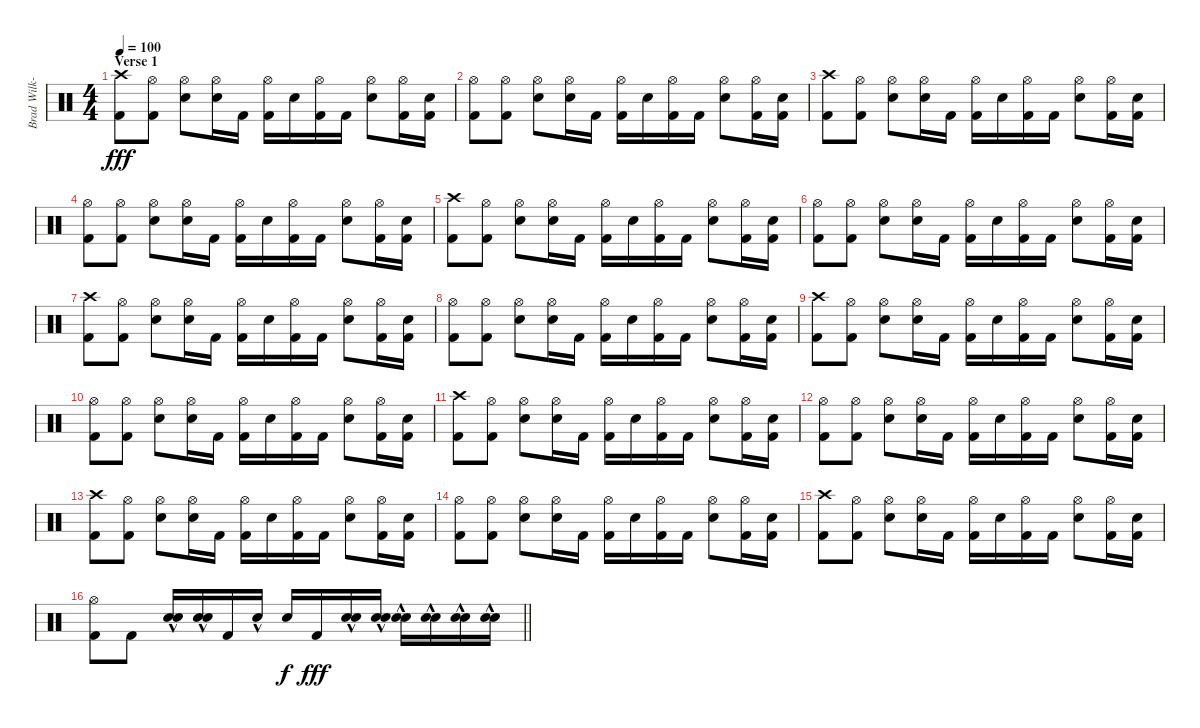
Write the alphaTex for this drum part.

\track ("Brad Wilk-Drums" "Brad Wilk-") {instrument percussion}
\staff {score}
\articulation defaults
\ts (4 4)
\section ("" "Verse 1")
\tempo 100
\clef neutral
\ks c
("Crash high (hit)" "Kick (hit) 2").8{dy fff} ("Hi-Hat (open)" "Kick (hit) 2").8 ("Hi-Hat (open)" "Electric Snare (hit)").8 ("Hi-Hat (open)" "Electric Snare (hit)").16 "Kick (hit) 2".16 ("Hi-Hat (open)" "Kick (hit) 2").16 "Electric Snare (hit)".16 ("Hi-Hat (open)" "Kick (hit) 2").16 "Kick (hit) 2".16 ("Hi-Hat (open)" "Electric Snare (hit)").8 ("Hi-Hat (open)" "Kick (hit) 2").16 ("Electric Snare (hit)" "Kick (hit) 2").16 |
("Hi-Hat (open)" "Kick (hit) 2").8 ("Hi-Hat (open)" "Kick (hit) 2").8 ("Hi-Hat (open)" "Electric Snare (hit)").8 ("Hi-Hat (open)" "Electric Snare (hit)").16 "Kick (hit) 2".16 ("Hi-Hat (open)" "Kick (hit) 2").16 "Electric Snare (hit)".16 ("Hi-Hat (open)" "Kick (hit) 2").16 "Kick (hit) 2".16 ("Hi-Hat (open)" "Electric Snare (hit)").8 ("Hi-Hat (open)" "Kick (hit) 2").16 ("Electric Snare (hit)" "Kick (hit) 2").16 |
("Crash high (hit)" "Kick (hit) 2").8 ("Hi-Hat (open)" "Kick (hit) 2").8 ("Hi-Hat (open)" "Electric Snare (hit)").8 ("Hi-Hat (open)" "Electric Snare (hit)").16 "Kick (hit) 2".16 ("Hi-Hat (open)" "Kick (hit) 2").16 "Electric Snare (hit)".16 ("Hi-Hat (open)" "Kick (hit) 2").16 "Kick (hit) 2".16 ("Hi-Hat (open)" "Electric Snare (hit)").8 ("Hi-Hat (open)" "Kick (hit) 2").16 ("Electric Snare (hit)" "Kick (hit) 2").16 |
("Hi-Hat (open)" "Kick (hit) 2").8 ("Hi-Hat (open)" "Kick (hit) 2").8 ("Hi-Hat (open)" "Electric Snare (hit)").8 ("Hi-Hat (open)" "Electric Snare (hit)").16 "Kick (hit) 2".16 ("Hi-Hat (open)" "Kick (hit) 2").16 "Electric Snare (hit)".16 ("Hi-Hat (open)" "Kick (hit) 2").16 "Kick (hit) 2".16 ("Hi-Hat (open)" "Electric Snare (hit)").8 ("Hi-Hat (open)" "Kick (hit) 2").16 ("Electric Snare (hit)" "Kick (hit) 2").16 |
("Crash high (hit)" "Kick (hit) 2").8 ("Hi-Hat (open)" "Kick (hit) 2").8 ("Hi-Hat (open)" "Electric Snare (hit)").8 ("Hi-Hat (open)" "Electric Snare (hit)").16 "Kick (hit) 2".16 ("Hi-Hat (open)" "Kick (hit) 2").16 "Electric Snare (hit)".16 ("Hi-Hat (open)" "Kick (hit) 2").16 "Kick (hit) 2".16 ("Hi-Hat (open)" "Electric Snare (hit)").8 ("Hi-Hat (open)" "Kick (hit) 2").16 ("Electric Snare (hit)" "Kick (hit) 2").16 |
("Hi-Hat (open)" "Kick (hit) 2").8 ("Hi-Hat (open)" "Kick (hit) 2").8 ("Hi-Hat (open)" "Electric Snare (hit)").8 ("Hi-Hat (open)" "Electric Snare (hit)").16 "Kick (hit) 2".16 ("Hi-Hat (open)" "Kick (hit) 2").16 "Electric Snare (hit)".16 ("Hi-Hat (open)" "Kick (hit) 2").16 "Kick (hit) 2".16 ("Hi-Hat (open)" "Electric Snare (hit)").8 ("Hi-Hat (open)" "Kick (hit) 2").16 ("Electric Snare (hit)" "Kick (hit) 2").16 |
("Crash high (hit)" "Kick (hit) 2").8 ("Hi-Hat (open)" "Kick (hit) 2").8 ("Hi-Hat (open)" "Electric Snare (hit)").8 ("Hi-Hat (open)" "Electric Snare (hit)").16 "Kick (hit) 2".16 ("Hi-Hat (open)" "Kick (hit) 2").16 "Electric Snare (hit)".16 ("Hi-Hat (open)" "Kick (hit) 2").16 "Kick (hit) 2".16 ("Hi-Hat (open)" "Electric Snare (hit)").8 ("Hi-Hat (open)" "Kick (hit) 2").16 ("Electric Snare (hit)" "Kick (hit) 2").16 |
("Hi-Hat (open)" "Kick (hit) 2").8 ("Hi-Hat (open)" "Kick (hit) 2").8 ("Hi-Hat (open)" "Electric Snare (hit)").8 ("Hi-Hat (open)" "Electric Snare (hit)").16 "Kick (hit) 2".16 ("Hi-Hat (open)" "Kick (hit) 2").16 "Electric Snare (hit)".16 ("Hi-Hat (open)" "Kick (hit) 2").16 "Kick (hit) 2".16 ("Hi-Hat (open)" "Electric Snare (hit)").8 ("Hi-Hat (open)" "Kick (hit) 2").16 ("Electric Snare (hit)" "Kick (hit) 2").16 |
("Crash high (hit)" "Kick (hit) 2").8 ("Hi-Hat (open)" "Kick (hit) 2").8 ("Hi-Hat (open)" "Electric Snare (hit)").8 ("Hi-Hat (open)" "Electric Snare (hit)").16 "Kick (hit) 2".16 ("Hi-Hat (open)" "Kick (hit) 2").16 "Electric Snare (hit)".16 ("Hi-Hat (open)" "Kick (hit) 2").16 "Kick (hit) 2".16 ("Hi-Hat (open)" "Electric Snare (hit)").8 ("Hi-Hat (open)" "Kick (hit) 2").16 ("Electric Snare (hit)" "Kick (hit) 2").16 |
("Hi-Hat (open)" "Kick (hit) 2").8 ("Hi-Hat (open)" "Kick (hit) 2").8 ("Hi-Hat (open)" "Electric Snare (hit)").8 ("Hi-Hat (open)" "Electric Snare (hit)").16 "Kick (hit) 2".16 ("Hi-Hat (open)" "Kick (hit) 2").16 "Electric Snare (hit)".16 ("Hi-Hat (open)" "Kick (hit) 2").16 "Kick (hit) 2".16 ("Hi-Hat (open)" "Electric Snare (hit)").8 ("Hi-Hat (open)" "Kick (hit) 2").16 ("Electric Snare (hit)" "Kick (hit) 2").16 |
("Crash high (hit)" "Kick (hit) 2").8 ("Hi-Hat (open)" "Kick (hit) 2").8 ("Hi-Hat (open)" "Electric Snare (hit)").8 ("Hi-Hat (open)" "Electric Snare (hit)").16 "Kick (hit) 2".16 ("Hi-Hat (open)" "Kick (hit) 2").16 "Electric Snare (hit)".16 ("Hi-Hat (open)" "Kick (hit) 2").16 "Kick (hit) 2".16 ("Hi-Hat (open)" "Electric Snare (hit)").8 ("Hi-Hat (open)" "Kick (hit) 2").16 ("Electric Snare (hit)" "Kick (hit) 2").16 |
("Hi-Hat (open)" "Kick (hit) 2").8 ("Hi-Hat (open)" "Kick (hit) 2").8 ("Hi-Hat (open)" "Electric Snare (hit)").8 ("Hi-Hat (open)" "Electric Snare (hit)").16 "Kick (hit) 2".16 ("Hi-Hat (open)" "Kick (hit) 2").16 "Electric Snare (hit)".16 ("Hi-Hat (open)" "Kick (hit) 2").16 "Kick (hit) 2".16 ("Hi-Hat (open)" "Electric Snare (hit)").8 ("Hi-Hat (open)" "Kick (hit) 2").16 ("Electric Snare (hit)" "Kick (hit) 2").16 |
("Crash high (hit)" "Kick (hit) 2").8 ("Hi-Hat (open)" "Kick (hit) 2").8 ("Hi-Hat (open)" "Electric Snare (hit)").8 ("Hi-Hat (open)" "Electric Snare (hit)").16 "Kick (hit) 2".16 ("Hi-Hat (open)" "Kick (hit) 2").16 "Electric Snare (hit)".16 ("Hi-Hat (open)" "Kick (hit) 2").16 "Kick (hit) 2".16 ("Hi-Hat (open)" "Electric Snare (hit)").8 ("Hi-Hat (open)" "Kick (hit) 2").16 ("Electric Snare (hit)" "Kick (hit) 2").16 |
("Hi-Hat (open)" "Kick (hit) 2").8 ("Hi-Hat (open)" "Kick (hit) 2").8 ("Hi-Hat (open)" "Electric Snare (hit)").8 ("Hi-Hat (open)" "Electric Snare (hit)").16 "Kick (hit) 2".16 ("Hi-Hat (open)" "Kick (hit) 2").16 "Electric Snare (hit)".16 ("Hi-Hat (open)" "Kick (hit) 2").16 "Kick (hit) 2".16 ("Hi-Hat (open)" "Electric Snare (hit)").8 ("Hi-Hat (open)" "Kick (hit) 2").16 ("Electric Snare (hit)" "Kick (hit) 2").16 |
("Crash high (hit)" "Kick (hit) 2").8 ("Hi-Hat (open)" "Kick (hit) 2").8 ("Hi-Hat (open)" "Electric Snare (hit)").8 ("Hi-Hat (open)" "Electric Snare (hit)").16 "Kick (hit) 2".16 ("Hi-Hat (open)" "Kick (hit) 2").16 "Electric Snare (hit)".16 ("Hi-Hat (open)" "Kick (hit) 2").16 "Kick (hit) 2".16 ("Hi-Hat (open)" "Electric Snare (hit)").8 ("Hi-Hat (open)" "Kick (hit) 2").16 ("Electric Snare (hit)" "Kick (hit) 2").16 |
\barLineRight lightlight
("Hi-Hat (open)" "Kick (hit) 2").8 "Kick (hit) 2".8 ("Electric Snare (hit)"{hac} "Snare (hit) 2").16 ("Electric Snare (hit)"{hac} "Snare (hit) 2").16 "Kick (hit) 2".16 "Electric Snare (hit)"{hac}.16 "Electric Snare (hit)".16{dy f} "Kick (hit) 2".16{dy fff} ("Electric Snare (hit)"{hac} "Snare (hit) 2"{hac}).16 ("Electric Snare (hit)" "Snare (hit) 2"{hac}).16 ("Electric Snare (hit)"{hac} "Snare (hit) 2"{hac}).16 ("Electric Snare (hit)"{hac} "Snare (hit) 2"{hac}).16 ("Electric Snare (hit)"{hac} "Snare (hit) 2"{hac}).16 ("Electric Snare (hit)"{hac} "Snare (hit) 2"{hac}).16
